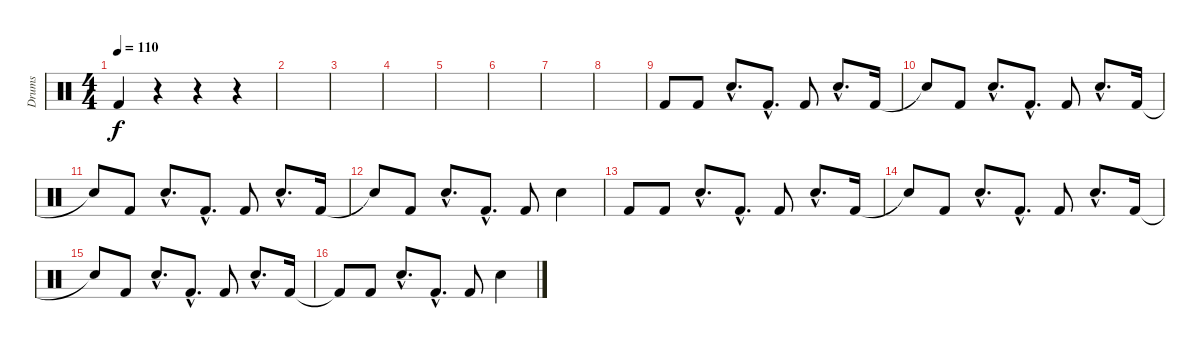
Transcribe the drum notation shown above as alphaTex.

\track ("Drums" "Drums") {instrument percussion}
\staff {score}
\articulation defaults
\ts (4 4)
\tempo 110
\clef neutral
\ks c "Kick (hit) 2".4{dy f}
r.4 r.4 r.4 |
|
|
|
|
|
|
|
"Kick (hit) 2".8 "Kick (hit) 2".8 "Electric Snare (hit)"{hac}.8{d} "Kick (hit) 2"{hac}.8{d} "Kick (hit) 2".8 "Electric Snare (hit)"{hac}.8{d} "Kick (hit) 2".16 |
"Snare (hit)"{t}.8 "Kick (hit) 2".8 "Electric Snare (hit)"{hac}.8{d} "Kick (hit) 2"{hac}.8{d} "Kick (hit) 2".8 "Electric Snare (hit)"{hac}.8{d} "Kick (hit) 2".16 |
"Snare (hit)"{t}.8 "Kick (hit) 2".8 "Electric Snare (hit)"{hac}.8{d} "Kick (hit) 2"{hac}.8{d} "Kick (hit) 2".8 "Electric Snare (hit)"{hac}.8{d} "Kick (hit) 2".16 |
"Snare (hit)"{t}.8 "Kick (hit) 2".8 "Electric Snare (hit)"{hac}.8{d} "Kick (hit) 2"{hac}.8{d} "Kick (hit) 2".8 "Electric Snare (hit)".4 |
"Kick (hit) 2".8 "Kick (hit) 2".8 "Electric Snare (hit)"{hac}.8{d} "Kick (hit) 2"{hac}.8{d} "Kick (hit) 2".8 "Electric Snare (hit)"{hac}.8{d} "Kick (hit) 2".16 |
"Snare (hit)"{t}.8 "Kick (hit) 2".8 "Electric Snare (hit)"{hac}.8{d} "Kick (hit) 2"{hac}.8{d} "Kick (hit) 2".8 "Electric Snare (hit)"{hac}.8{d} "Kick (hit) 2".16 |
"Snare (hit)"{t}.8 "Kick (hit) 2".8 "Electric Snare (hit)"{hac}.8{d} "Kick (hit) 2"{hac}.8{d} "Kick (hit) 2".8 "Electric Snare (hit)"{hac}.8{d} "Kick (hit) 2".16 |
"Kick (hit) 2"{t}.8 "Kick (hit) 2".8 "Electric Snare (hit)"{hac}.8{d} "Kick (hit) 2"{hac}.8{d} "Kick (hit) 2".8 "Electric Snare (hit)".4
